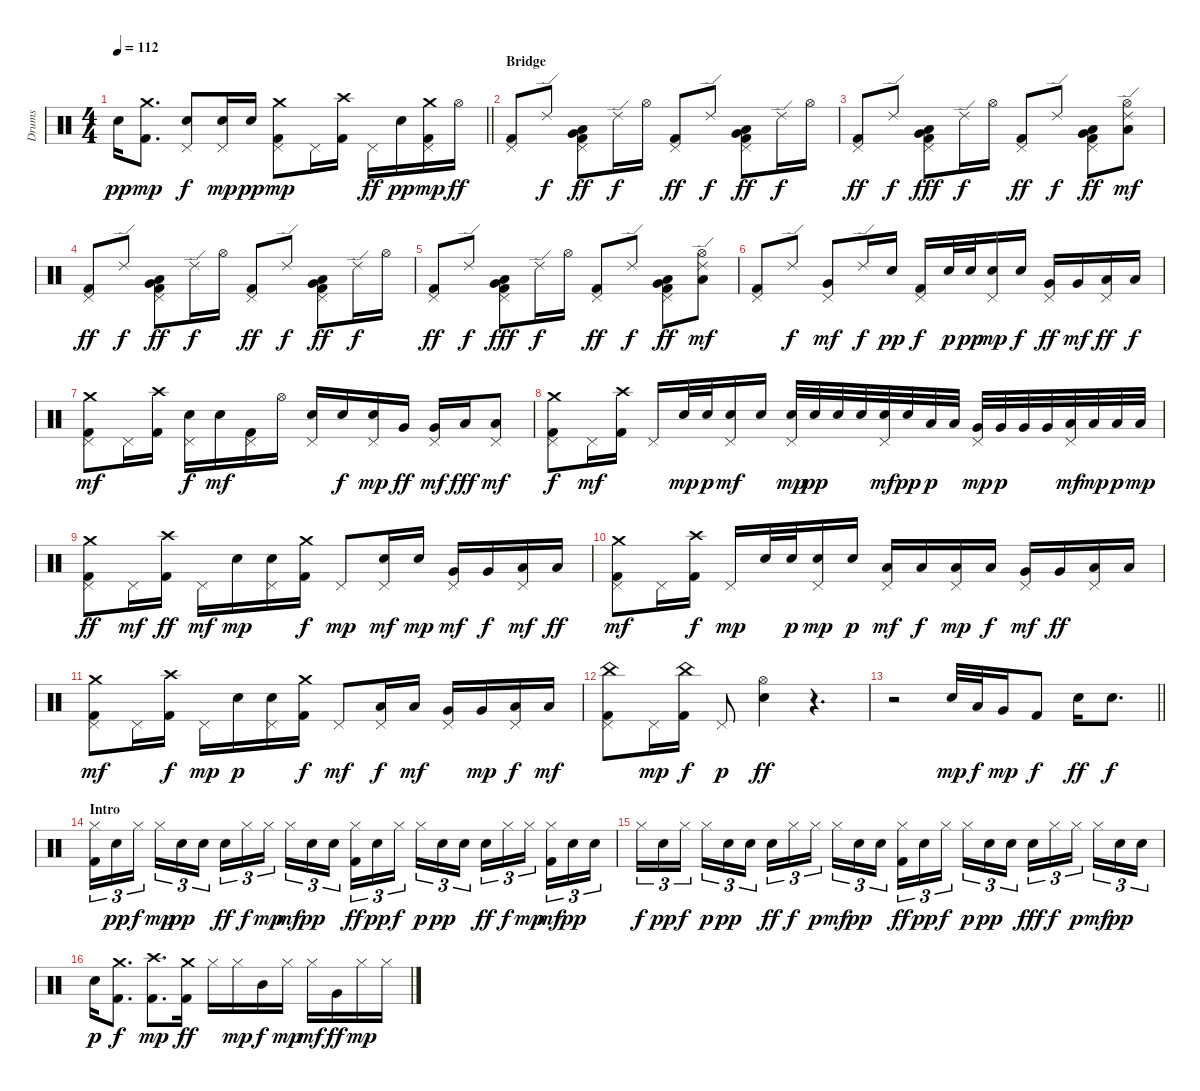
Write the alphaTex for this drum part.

\track ("Drums" "Drums") {instrument percussion}
\staff {score}
\articulation defaults
\ts (4 4)
\tempo 112
\clef neutral
\barLineRight lightlight
\ks c "Snare (hit) 2".16{dy pp}
("Kick (hit) 2" "Crash medium (hit)").8{d dy mp} ("Snare (hit) 2" "Pedal Hi-Hat (hit)").8{dy f} ("Snare (hit) 2" "Pedal Hi-Hat (hit)").16{dy mp} "Snare (hit) 2".16{dy pp} ("Kick (hit) 2" "Pedal Hi-Hat (hit)" "Crash medium (hit)").8{dy mp} "Pedal Hi-Hat (hit)".16 ("Kick (hit) 2" "Crash high (hit)").16 "Pedal Hi-Hat (hit)".16{dy ff} "Snare (hit) 2".16{dy pp} ("Kick (hit) 2" "Pedal Hi-Hat (hit)" "Crash medium (hit)").16{dy mp} "Hi-Hat (open)".16{dy ff} |
\section ("" "Bridge")
("Kick (hit) 2" "Pedal Hi-Hat (hit)").8 "Ride (edge) 2".8{dy f} ("Kick (hit) 2" "Pedal Hi-Hat (hit)" "Very Low Tom (hit)" "Low Floor Tom (hit)").8{dy ff} "Ride (edge) 2".16{dy f} "Hi-Hat (open)".16 ("Kick (hit) 2" "Pedal Hi-Hat (hit)").8{dy ff} "Ride (edge) 2".8{dy f} ("Kick (hit) 2" "Pedal Hi-Hat (hit)" "Very Low Tom (hit)" "Low Floor Tom (hit)").8{dy ff} "Ride (edge) 2".16{dy f} "Hi-Hat (open)".16 |
("Kick (hit) 2" "Pedal Hi-Hat (hit)").8{dy ff} "Ride (edge) 2".8{dy f} ("Kick (hit) 2" "Pedal Hi-Hat (hit)" "Very Low Tom (hit)" "Low Floor Tom (hit)").8{dy fff} "Ride (edge) 2".16{dy f} "Hi-Hat (open)".16 ("Kick (hit) 2" "Pedal Hi-Hat (hit)").8{dy ff} "Ride (edge) 2".8{dy f} ("Kick (hit) 2" "Pedal Hi-Hat (hit)" "Very Low Tom (hit)" "Low Floor Tom (hit)").8{dy ff} ("Hi-Hat (open)" "Low Floor Tom (hit)" "Ride (edge) 2").8{dy mf} |
("Kick (hit) 2" "Pedal Hi-Hat (hit)").8{dy ff} "Ride (edge) 2".8{dy f} ("Kick (hit) 2" "Pedal Hi-Hat (hit)" "Very Low Tom (hit)" "Low Floor Tom (hit)").8{dy ff} "Ride (edge) 2".16{dy f} "Hi-Hat (open)".16 ("Kick (hit) 2" "Pedal Hi-Hat (hit)").8{dy ff} "Ride (edge) 2".8{dy f} ("Kick (hit) 2" "Pedal Hi-Hat (hit)" "Very Low Tom (hit)" "Low Floor Tom (hit)").8{dy ff} "Ride (edge) 2".16{dy f} "Hi-Hat (open)".16 |
("Kick (hit) 2" "Pedal Hi-Hat (hit)").8{dy ff} "Ride (edge) 2".8{dy f} ("Kick (hit) 2" "Pedal Hi-Hat (hit)" "Very Low Tom (hit)" "Low Floor Tom (hit)").8{dy fff} "Ride (edge) 2".16{dy f} "Hi-Hat (open)".16 ("Kick (hit) 2" "Pedal Hi-Hat (hit)").8{dy ff} "Ride (edge) 2".8{dy f} ("Kick (hit) 2" "Pedal Hi-Hat (hit)" "Very Low Tom (hit)" "Low Floor Tom (hit)").8{dy ff} ("Hi-Hat (open)" "Low Floor Tom (hit)" "Ride (edge) 2").8{dy mf} |
("Kick (hit) 2" "Pedal Hi-Hat (hit)").8 "Ride (edge) 2".8{dy f} ("Very Low Tom (hit)" "Pedal Hi-Hat (hit)").8{dy mf} "Ride (edge) 2".16{dy f} "Snare (hit) 2".16{dy pp} ("Kick (hit) 2" "Pedal Hi-Hat (hit)").16{dy f} "Snare (hit) 2".32{dy p} "Snare (hit) 2".32{dy pp} ("Snare (hit) 2" "Pedal Hi-Hat (hit)").16{dy mp} "Snare (hit) 2".16{dy f} ("Pedal Hi-Hat (hit)" "Very Low Tom (hit)").16{dy ff} "Very Low Tom (hit)".16{dy mf} ("Pedal Hi-Hat (hit)" "Low Floor Tom (hit)").16{dy ff} "Low Floor Tom (hit)".16{dy f} |
("Kick (hit) 2" "Pedal Hi-Hat (hit)" "Crash medium (hit)").8{dy mf} "Pedal Hi-Hat (hit)".16 ("Kick (hit) 2" "Crash high (hit)").16 ("Snare (hit) 2" "Pedal Hi-Hat (hit)").16{dy f} "Snare (hit) 2".16{dy mf} ("Kick (hit) 2" "Pedal Hi-Hat (hit)").16 "Hi-Hat (open)".16 ("Snare (hit) 2" "Pedal Hi-Hat (hit)").16 "Snare (hit) 2".16{dy f} ("Snare (hit) 2" "Pedal Hi-Hat (hit)").16{dy mp} "Very Low Tom (hit)".16{dy ff} ("Pedal Hi-Hat (hit)" "Very Low Tom (hit)").16{dy mf} "Low Floor Tom (hit)".16{dy fff} ("Pedal Hi-Hat (hit)" "Low Floor Tom (hit)").8{dy mf} |
("Kick (hit) 2" "Pedal Hi-Hat (hit)" "Crash medium (hit)").8{dy f} "Pedal Hi-Hat (hit)".16{dy mf} ("Kick (hit) 2" "Crash high (hit)").16 "Pedal Hi-Hat (hit)".16 "Snare (hit) 2".32{dy mp} "Snare (hit) 2".32{dy p} ("Snare (hit) 2" "Pedal Hi-Hat (hit)").16{dy mf} "Snare (hit) 2".16 ("Snare (hit) 2" "Pedal Hi-Hat (hit)").32{dy mp} "Snare (hit) 2".32{dy pp} "Snare (hit) 2".32 "Snare (hit) 2".32 ("Snare (hit) 2" "Pedal Hi-Hat (hit)").32{dy mf} "Snare (hit) 2".32{dy pp} "Low Tom (hit)".32{dy p} "Low Tom (hit)".32 ("Very Low Tom (hit)" "Pedal Hi-Hat (hit)").32{dy mp} "Very Low Tom (hit)".32{dy p} "Very Low Tom (hit)".32 "Very Low Tom (hit)".32 ("Low Floor Tom (hit)" "Pedal Hi-Hat (hit)").32{dy mf} "Low Floor Tom (hit)".32{dy mp} "Low Floor Tom (hit)".32{dy p} "Low Floor Tom (hit)".32{dy mp} |
("Kick (hit) 2" "Pedal Hi-Hat (hit)" "Crash medium (hit)").8{dy ff} "Pedal Hi-Hat (hit)".16{dy mf} ("Kick (hit) 2" "Crash high (hit)").16{dy ff} "Pedal Hi-Hat (hit)".16{dy mf} "Snare (hit) 2".16{dy mp} ("Snare (hit) 2" "Pedal Hi-Hat (hit)").16 ("Kick (hit) 2" "Crash medium (hit)").16{dy f} "Pedal Hi-Hat (hit)".8{dy mp} ("Snare (hit) 2" "Pedal Hi-Hat (hit)").16{dy mf} "Snare (hit) 2".16{dy mp} ("Pedal Hi-Hat (hit)" "Very Low Tom (hit)").16{dy mf} "Very Low Tom (hit)".16{dy f} ("Pedal Hi-Hat (hit)" "Low Floor Tom (hit)").16{dy mf} "Low Floor Tom (hit)".16{dy ff} |
("Kick (hit) 2" "Pedal Hi-Hat (hit)" "Crash medium (hit)").8{dy mf} "Pedal Hi-Hat (hit)".16 ("Kick (hit) 2" "Crash high (hit)").16{dy f} "Pedal Hi-Hat (hit)".16{dy mp} "Snare (hit) 2".32 "Snare (hit) 2".32{dy p} ("Snare (hit) 2" "Pedal Hi-Hat (hit)").16{dy mp} "Snare (hit) 2".16{dy p} ("Pedal Hi-Hat (hit)" "Low Floor Tom (hit)").16{dy mf} "Low Floor Tom (hit)".16{dy f} ("Pedal Hi-Hat (hit)" "Low Floor Tom (hit)").16{dy mp} "Low Floor Tom (hit)".16{dy f} ("Pedal Hi-Hat (hit)" "Very Low Tom (hit)").16{dy mf} "Very Low Tom (hit)".16{dy ff} ("Pedal Hi-Hat (hit)" "Low Tom (hit)").16 "Low Tom (hit)".16 |
("Kick (hit) 2" "Pedal Hi-Hat (hit)" "Crash medium (hit)").8{dy mf} "Pedal Hi-Hat (hit)".16 ("Kick (hit) 2" "Crash high (hit)").16{dy f} "Pedal Hi-Hat (hit)".16{dy mp} "Snare (hit) 2".16{dy p} ("Snare (hit) 2" "Pedal Hi-Hat (hit)").16 ("Kick (hit) 2" "Crash medium (hit)").16{dy f} "Pedal Hi-Hat (hit)".8{dy mf} ("Pedal Hi-Hat (hit)" "Low Tom (hit)").16{dy f} "Low Tom (hit)".16{dy mf} ("Pedal Hi-Hat (hit)" "Very Low Tom (hit)").16 "Very Low Tom (hit)".16{dy mp} ("Pedal Hi-Hat (hit)" "Low Floor Tom (hit)").16{dy f} "Low Floor Tom (hit)".16{dy mf} |
("Kick (hit) 2" "Pedal Hi-Hat (hit)" "China (hit)").8 "Pedal Hi-Hat (hit)".16{dy mp} ("Kick (hit) 2" "China (hit)").16{dy f} "Pedal Hi-Hat (hit)".8{dy p} ("Snare (hit) 2" "Hi-Hat (open)").4{dy ff} r.4{d} |
\barLineRight lightlight
r.2 "Snare (hit) 2".32{dy mp} "Low Tom (hit)".32{dy f} "Very Low Tom (hit)".16{dy mp} "Kick (hit) 2".8{dy f} "Snare (hit) 2".16{dy ff} "Snare (hit) 2".8{d dy f} |
\section ("" "Intro")
("Kick (hit) 2" "Hi-Hat (closed)").16{tu (3 2)} "Snare (hit) 2".16{tu (3 2) dy pp} "Hi-Hat (closed)".16{tu (3 2) dy f beam splitsecondary} "Hi-Hat (closed)".16{tu (3 2) dy mp} "Snare (hit) 2".16{tu (3 2) dy pp} "Snare (hit) 2".16{tu (3 2)} "Snare (hit) 2".16{tu (3 2) dy ff} "Hi-Hat (closed)".16{tu (3 2) dy f} "Hi-Hat (closed)".16{tu (3 2) dy mp beam splitsecondary} "Hi-Hat (closed)".16{tu (3 2) dy mf} "Snare (hit) 2".16{tu (3 2) dy pp} "Snare (hit) 2".16{tu (3 2)} ("Kick (hit) 2" "Hi-Hat (closed)").16{tu (3 2) dy ff} "Snare (hit) 2".16{tu (3 2) dy pp} "Hi-Hat (closed)".16{tu (3 2) dy f beam splitsecondary} "Hi-Hat (closed)".16{tu (3 2) dy p} "Snare (hit) 2".16{tu (3 2) dy pp} "Snare (hit) 2".16{tu (3 2)} "Snare (hit) 2".16{tu (3 2) dy ff} "Hi-Hat (closed)".16{tu (3 2) dy f} "Hi-Hat (closed)".16{tu (3 2) dy mp beam splitsecondary} ("Kick (hit) 2" "Hi-Hat (closed)").16{tu (3 2) dy mf} "Snare (hit) 2".16{tu (3 2) dy pp} "Snare (hit) 2".16{tu (3 2)} |
"Hi-Hat (closed)".16{tu (3 2) dy f} "Snare (hit) 2".16{tu (3 2) dy pp} "Hi-Hat (closed)".16{tu (3 2) dy f beam splitsecondary} "Hi-Hat (closed)".16{tu (3 2) dy p} "Snare (hit) 2".16{tu (3 2) dy pp} "Snare (hit) 2".16{tu (3 2)} "Snare (hit) 2".16{tu (3 2) dy ff} "Hi-Hat (closed)".16{tu (3 2) dy f} "Hi-Hat (closed)".16{tu (3 2) dy p beam splitsecondary} "Hi-Hat (closed)".16{tu (3 2) dy mf} "Snare (hit) 2".16{tu (3 2) dy pp} "Snare (hit) 2".16{tu (3 2)} ("Kick (hit) 2" "Hi-Hat (closed)").16{tu (3 2) dy ff} "Snare (hit) 2".16{tu (3 2) dy pp} "Hi-Hat (closed)".16{tu (3 2) dy f beam splitsecondary} "Hi-Hat (closed)".16{tu (3 2) dy p} "Snare (hit) 2".16{tu (3 2) dy pp} "Snare (hit) 2".16{tu (3 2)} "Snare (hit) 2".16{tu (3 2) dy fff} "Hi-Hat (closed)".16{tu (3 2) dy f} "Hi-Hat (closed)".16{tu (3 2) dy p beam splitsecondary} "Hi-Hat (closed)".16{tu (3 2) dy mf} "Snare (hit) 2".16{tu (3 2) dy pp} "Snare (hit) 2".16{tu (3 2)} |
"Snare (hit) 2".16{dy p} ("Kick (hit) 2" "Crash medium (hit)").8{d dy f} ("Kick (hit) 2" "Crash high (hit)").8{d dy mp} ("Kick (hit) 2" "Crash medium (hit)").16{dy ff} "Hi-Hat (closed)".16 "Hi-Hat (closed)".16{dy mp} "Mid Tom (hit)".16{dy f} "Hi-Hat (closed)".16{dy mp} "Hi-Hat (closed)".16{dy mf} "Very Low Tom (hit)".16{dy ff} "Hi-Hat (closed)".16{dy mp} "Hi-Hat (closed)".16
